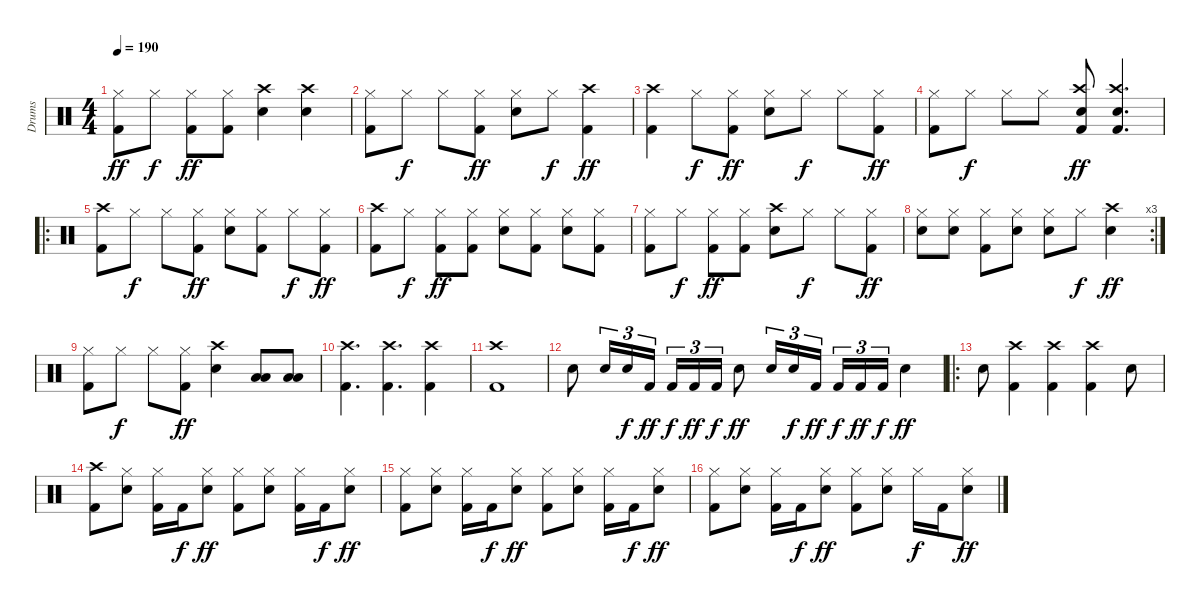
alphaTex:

\track ("Drums" "Drums") {instrument percussion}
\staff {score}
\articulation defaults
\ts (4 4)
\tempo 190
\clef neutral
\ks c
("Hi-Hat (closed)" "Kick (hit) 2").8{dy ff} "Hi-Hat (closed)".8{dy f} ("Hi-Hat (closed)" "Kick (hit) 2").8{dy ff} ("Hi-Hat (closed)" "Kick (hit) 2").8 ("Crash high (hit)" "Snare (hit) 2").4 ("Crash high (hit)" "Snare (hit) 2").4 |
("Hi-Hat (closed)" "Kick (hit) 2").8 "Hi-Hat (closed)".8{dy f} "Hi-Hat (closed)".8 ("Hi-Hat (closed)" "Kick (hit) 2").8{dy ff} ("Hi-Hat (closed)" "Snare (hit) 2").8 "Hi-Hat (closed)".8{dy f} ("Crash high (hit)" "Kick (hit) 2").4{dy ff} |
("Crash high (hit)" "Kick (hit) 2").4 "Hi-Hat (closed)".8{dy f} ("Hi-Hat (closed)" "Kick (hit) 2").8{dy ff} ("Hi-Hat (closed)" "Snare (hit) 2").8 "Hi-Hat (closed)".8{dy f} "Hi-Hat (closed)".8 ("Hi-Hat (closed)" "Kick (hit) 2").8{dy ff} |
("Hi-Hat (closed)" "Kick (hit) 2").8 "Hi-Hat (closed)".8{dy f} "Hi-Hat (closed)".8 "Hi-Hat (closed)".8 ("Crash high (hit)" "Snare (hit) 2" "Kick (hit) 2").8{dy ff} ("Crash high (hit)" "Snare (hit) 2" "Kick (hit) 2").4{d} |
\ro
("Crash high (hit)" "Kick (hit) 2").8 "Hi-Hat (closed)".8{dy f} "Hi-Hat (closed)".8 ("Hi-Hat (closed)" "Kick (hit) 2").8{dy ff} ("Hi-Hat (closed)" "Snare (hit) 2").8 ("Hi-Hat (closed)" "Kick (hit) 2").8 "Hi-Hat (closed)".8{dy f} ("Hi-Hat (closed)" "Kick (hit) 2").8{dy ff} |
("Crash high (hit)" "Kick (hit) 2").8 "Hi-Hat (closed)".8{dy f} ("Hi-Hat (closed)" "Kick (hit) 2").8{dy ff} ("Hi-Hat (closed)" "Kick (hit) 2").8 ("Hi-Hat (closed)" "Snare (hit) 2").8 ("Hi-Hat (closed)" "Kick (hit) 2").8 ("Hi-Hat (closed)" "Snare (hit) 2").8 ("Hi-Hat (closed)" "Kick (hit) 2").8 |
("Hi-Hat (closed)" "Kick (hit) 2").8 "Hi-Hat (closed)".8{dy f} ("Hi-Hat (closed)" "Kick (hit) 2").8{dy ff} ("Hi-Hat (closed)" "Kick (hit) 2").8 ("Crash high (hit)" "Snare (hit) 2").8 "Hi-Hat (closed)".8{dy f} "Hi-Hat (closed)".8 ("Hi-Hat (closed)" "Kick (hit) 2").8{dy ff} |
\rc 3
("Hi-Hat (closed)" "Snare (hit) 2").8 ("Hi-Hat (closed)" "Snare (hit) 2").8 ("Hi-Hat (closed)" "Kick (hit) 2").8 ("Hi-Hat (closed)" "Snare (hit) 2").8 ("Hi-Hat (closed)" "Snare (hit) 2").8 "Hi-Hat (closed)".8{dy f} ("Crash high (hit)" "Snare (hit) 2").4{dy ff} |
("Hi-Hat (closed)" "Kick (hit) 2").8 "Hi-Hat (closed)".8{dy f} "Hi-Hat (closed)".8 ("Hi-Hat (closed)" "Kick (hit) 2").8{dy ff} ("Crash high (hit)" "Snare (hit) 2").4 ("Low Tom (hit)" "Low Floor Tom (hit)").8 ("Low Tom (hit)" "Low Floor Tom (hit)").8 |
("Crash high (hit)" "Kick (hit) 2").4{d} ("Crash high (hit)" "Kick (hit) 2").4{d} ("Crash high (hit)" "Kick (hit) 2").4 |
("Crash high (hit)" "Kick (hit) 2").1 |
"Snare (hit) 2".8 "Snare (hit) 2".16{tu (3 2)} "Snare (hit) 2".16{tu (3 2) dy f} "Kick (hit) 2".16{tu (3 2) dy ff} "Kick (hit) 2".16{tu (3 2) dy f} "Kick (hit) 2".16{tu (3 2) dy ff} "Kick (hit) 2".16{tu (3 2) dy f} "Snare (hit) 2".8{dy ff} "Snare (hit) 2".16{tu (3 2)} "Snare (hit) 2".16{tu (3 2) dy f} "Kick (hit) 2".16{tu (3 2) dy ff beam splitsecondary} "Kick (hit) 2".16{tu (3 2) dy f} "Kick (hit) 2".16{tu (3 2) dy ff} "Kick (hit) 2".16{tu (3 2) dy f} "Snare (hit) 2".4{dy ff} |
\ro "Snare (hit) 2".8
("Crash high (hit)" "Kick (hit) 2").4 ("Crash high (hit)" "Kick (hit) 2").4 ("Crash high (hit)" "Kick (hit) 2").4 "Snare (hit) 2".8 |
("Crash high (hit)" "Kick (hit) 2").8 ("Hi-Hat (closed)" "Snare (hit) 2").8 ("Hi-Hat (closed)" "Kick (hit) 2").16 "Kick (hit) 2".16{dy f} ("Hi-Hat (closed)" "Snare (hit) 2").8{dy ff} ("Hi-Hat (closed)" "Kick (hit) 2").8 ("Hi-Hat (closed)" "Snare (hit) 2").8 ("Hi-Hat (closed)" "Kick (hit) 2").16 "Kick (hit) 2".16{dy f} ("Hi-Hat (closed)" "Snare (hit) 2").8{dy ff} |
("Hi-Hat (closed)" "Kick (hit) 2").8 ("Hi-Hat (closed)" "Snare (hit) 2").8 ("Hi-Hat (closed)" "Kick (hit) 2").16 "Kick (hit) 2".16{dy f} ("Hi-Hat (closed)" "Snare (hit) 2").8{dy ff} ("Hi-Hat (closed)" "Kick (hit) 2").8 ("Hi-Hat (closed)" "Snare (hit) 2").8 ("Hi-Hat (closed)" "Kick (hit) 2").16 "Kick (hit) 2".16{dy f} ("Hi-Hat (closed)" "Snare (hit) 2").8{dy ff} |
("Hi-Hat (closed)" "Kick (hit) 2").8 ("Hi-Hat (closed)" "Snare (hit) 2").8 ("Hi-Hat (closed)" "Kick (hit) 2").16 "Kick (hit) 2".16{dy f} ("Hi-Hat (closed)" "Snare (hit) 2").8{dy ff} ("Hi-Hat (closed)" "Kick (hit) 2").8 ("Hi-Hat (closed)" "Snare (hit) 2").8 "Hi-Hat (closed)".16{dy f} "Kick (hit) 2".16 ("Hi-Hat (closed)" "Snare (hit) 2").8{dy ff}
